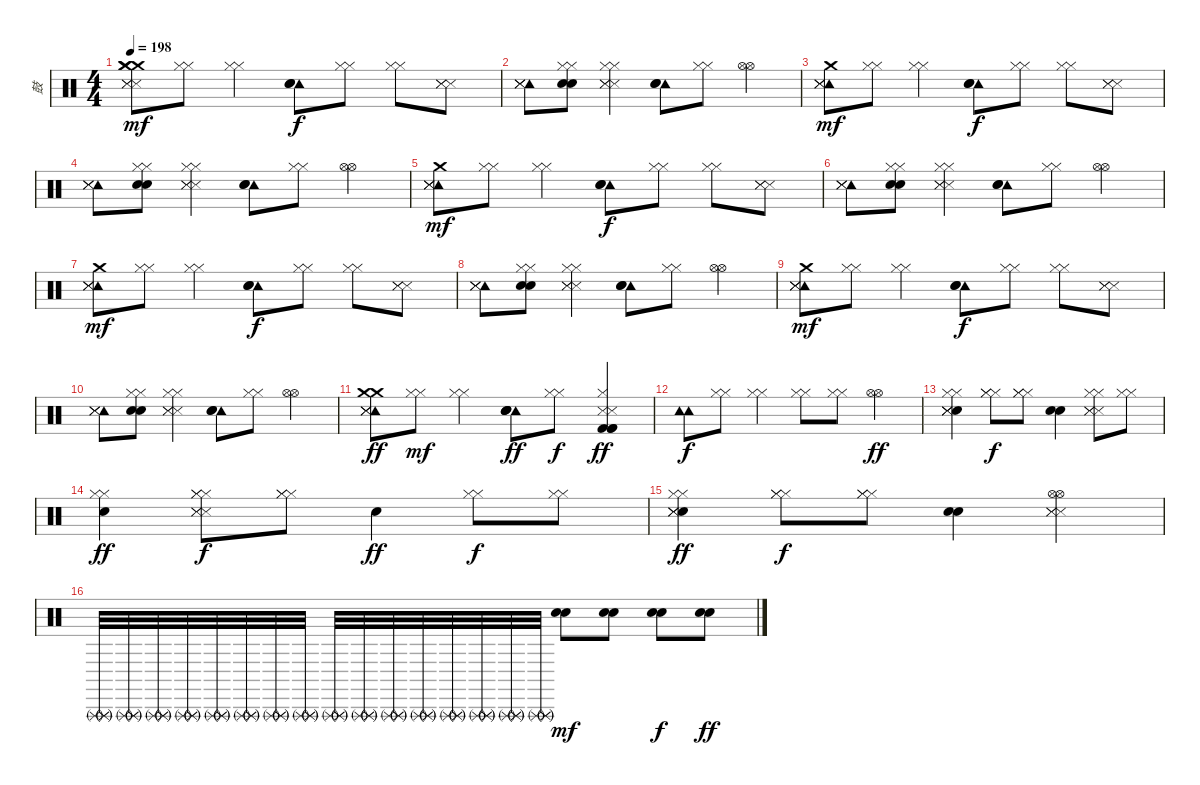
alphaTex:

\track ("鼓" "鼓") {instrument percussion}
\staff {score}
\articulation defaults
\ts (4 4)
\tempo 198
\clef neutral
\ks c
("Crash medium (hit)" "Crash medium (hit)" "Metronome (hit)" "Metronome (hit)" "Metronome (hit)" "Crash medium (hit)").8{dy mf} ("Hi-Hat (closed)" "Hi-Hat (closed)").8 ("Hi-Hat (closed)" "Hi-Hat (closed)").4 ("Tambourine (hit)" "Metronome (bell)" "Metronome (bell)").8{dy f} ("Hi-Hat (closed)" "Hi-Hat (closed)").8 ("Hi-Hat (closed)" "Hi-Hat (closed)").8 ("Metronome (hit)" "Metronome (hit)" "Metronome (hit)").8 |
("Tambourine (hit)" "Metronome (hit)" "Metronome (hit)" "Metronome (hit)").8 ("Hi-Hat (closed)" "Hi-Hat (closed)" "Metronome (bell)" "Metronome (bell)").8 ("Hi-Hat (closed)" "Hi-Hat (closed)" "Metronome (hit)" "Metronome (hit)" "Metronome (hit)").4 ("Tambourine (hit)" "Metronome (bell)" "Metronome (bell)").8 ("Hi-Hat (closed)" "Hi-Hat (closed)").8 ("Hi-Hat (open)" "Hi-Hat (open)").4 |
("Tambourine (hit)" "Crash medium (hit)" "Metronome (hit)" "Metronome (hit)" "Metronome (hit)").8{dy mf} ("Hi-Hat (closed)" "Hi-Hat (closed)").8 ("Hi-Hat (closed)" "Hi-Hat (closed)").4 ("Tambourine (hit)" "Metronome (bell)" "Metronome (bell)").8{dy f} ("Hi-Hat (closed)" "Hi-Hat (closed)").8 ("Hi-Hat (closed)" "Hi-Hat (closed)").8 ("Metronome (hit)" "Metronome (hit)" "Metronome (hit)").8 |
("Tambourine (hit)" "Metronome (hit)" "Metronome (hit)" "Metronome (hit)").8 ("Hi-Hat (closed)" "Hi-Hat (closed)" "Metronome (bell)" "Metronome (bell)").8 ("Hi-Hat (closed)" "Hi-Hat (closed)" "Metronome (hit)" "Metronome (hit)" "Metronome (hit)").4 ("Tambourine (hit)" "Metronome (bell)" "Metronome (bell)").8 ("Hi-Hat (closed)" "Hi-Hat (closed)").8 ("Hi-Hat (open)" "Hi-Hat (open)").4 |
("Tambourine (hit)" "Crash medium (hit)" "Metronome (hit)" "Metronome (hit)" "Metronome (hit)").8{dy mf} ("Hi-Hat (closed)" "Hi-Hat (closed)").8 ("Hi-Hat (closed)" "Hi-Hat (closed)").4 ("Tambourine (hit)" "Metronome (bell)" "Metronome (bell)").8{dy f} ("Hi-Hat (closed)" "Hi-Hat (closed)").8 ("Hi-Hat (closed)" "Hi-Hat (closed)").8 ("Metronome (hit)" "Metronome (hit)" "Metronome (hit)").8 |
("Tambourine (hit)" "Metronome (hit)" "Metronome (hit)" "Metronome (hit)").8 ("Hi-Hat (closed)" "Hi-Hat (closed)" "Metronome (bell)" "Metronome (bell)").8 ("Hi-Hat (closed)" "Hi-Hat (closed)" "Metronome (hit)" "Metronome (hit)" "Metronome (hit)").4 ("Tambourine (hit)" "Metronome (bell)" "Metronome (bell)").8 ("Hi-Hat (closed)" "Hi-Hat (closed)").8 ("Hi-Hat (open)" "Hi-Hat (open)").4 |
("Tambourine (hit)" "Crash medium (hit)" "Metronome (hit)" "Metronome (hit)" "Metronome (hit)").8{dy mf} ("Hi-Hat (closed)" "Hi-Hat (closed)").8 ("Hi-Hat (closed)" "Hi-Hat (closed)").4 ("Tambourine (hit)" "Metronome (bell)" "Metronome (bell)").8{dy f} ("Hi-Hat (closed)" "Hi-Hat (closed)").8 ("Hi-Hat (closed)" "Hi-Hat (closed)").8 ("Metronome (hit)" "Metronome (hit)" "Metronome (hit)").8 |
("Tambourine (hit)" "Metronome (hit)" "Metronome (hit)" "Metronome (hit)").8 ("Hi-Hat (closed)" "Hi-Hat (closed)" "Metronome (bell)" "Metronome (bell)").8 ("Hi-Hat (closed)" "Hi-Hat (closed)" "Metronome (hit)" "Metronome (hit)" "Metronome (hit)").4 ("Tambourine (hit)" "Metronome (bell)" "Metronome (bell)").8 ("Hi-Hat (closed)" "Hi-Hat (closed)").8 ("Hi-Hat (open)" "Hi-Hat (open)").4 |
("Tambourine (hit)" "Crash medium (hit)" "Metronome (hit)" "Metronome (hit)" "Metronome (hit)").8{dy mf} ("Hi-Hat (closed)" "Hi-Hat (closed)").8 ("Hi-Hat (closed)" "Hi-Hat (closed)").4 ("Tambourine (hit)" "Metronome (bell)" "Metronome (bell)").8{dy f} ("Hi-Hat (closed)" "Hi-Hat (closed)").8 ("Hi-Hat (closed)" "Hi-Hat (closed)").8 ("Metronome (hit)" "Metronome (hit)" "Metronome (hit)").8 |
("Tambourine (hit)" "Metronome (hit)" "Metronome (hit)" "Metronome (hit)").8 ("Hi-Hat (closed)" "Hi-Hat (closed)" "Metronome (bell)" "Metronome (bell)").8 ("Hi-Hat (closed)" "Hi-Hat (closed)" "Metronome (hit)" "Metronome (hit)" "Metronome (hit)").4 ("Tambourine (hit)" "Metronome (bell)" "Metronome (bell)").8 ("Hi-Hat (closed)" "Hi-Hat (closed)").8 ("Hi-Hat (open)" "Hi-Hat (open)").4 |
("Tambourine (hit)" "Crash medium (hit)" "Metronome (hit)" "Metronome (hit)" "Metronome (hit)" "Crash medium (hit)").8{dy ff} ("Hi-Hat (closed)" "Hi-Hat (closed)").8{dy mf} ("Hi-Hat (closed)" "Hi-Hat (closed)").4 ("Tambourine (hit)" "Metronome (bell)" "Metronome (bell)" "Metronome (bell)").8{dy ff} ("Hi-Hat (closed)" "Hi-Hat (closed)").8{dy f} ("Hi-Hat (closed)" "Metronome (hit)" "Kick (hit) 2" "Kick (hit) 2" "Metronome (hit)" "Kick (hit) 2").4{dy ff} |
("Tambourine (hit)" "Tambourine (hit)").8{dy f} ("Hi-Hat (closed)" "Hi-Hat (closed)").8 ("Hi-Hat (closed)" "Hi-Hat (closed)").4 ("Hi-Hat (closed)" "Hi-Hat (closed)").8 ("Hi-Hat (closed)" "Hi-Hat (closed)").8 ("Hi-Hat (open)" "Hi-Hat (open)").4{dy ff} |
("Hi-Hat (closed)" "Hi-Hat (closed)" "Hand Clap (hit)" "Metronome (hit)" "Metronome (hit)" "Metronome (hit)").4 ("Hi-Hat (closed)" "Hi-Hat (closed)" "Hi-Hat (closed)").8{dy f} ("Hi-Hat (closed)" "Hi-Hat (closed)" "Hi-Hat (closed)").8 ("Hand Clap (hit)" "Hand Clap (hit)").4 ("Hi-Hat (closed)" "Hi-Hat (closed)" "Metronome (hit)" "Metronome (hit)" "Metronome (hit)").8 ("Hi-Hat (closed)" "Hi-Hat (closed)").8 |
("Hi-Hat (closed)" "Hi-Hat (closed)" "Hand Clap (hit)").4{dy ff} ("Hi-Hat (closed)" "Hi-Hat (closed)" "Hi-Hat (closed)" "Metronome (hit)" "Metronome (hit)" "Metronome (hit)").8{dy f} ("Hi-Hat (closed)" "Hi-Hat (closed)" "Hi-Hat (closed)").8 "Hand Clap (hit)".4{dy ff} ("Hi-Hat (closed)" "Hi-Hat (closed)").8{dy f} ("Hi-Hat (closed)" "Hi-Hat (closed)").8 |
("Hi-Hat (closed)" "Hi-Hat (closed)" "Hand Clap (hit)" "Metronome (hit)" "Metronome (hit)" "Metronome (hit)").4{dy ff} ("Hi-Hat (closed)" "Hi-Hat (closed)" "Hi-Hat (closed)").8{dy f} ("Hi-Hat (closed)" "Hi-Hat (closed)" "Hi-Hat (closed)").8 ("Hand Clap (hit)" "Hand Clap (hit)").4 ("Hi-Hat (open)" "Hi-Hat (open)" "Metronome (hit)" "Metronome (hit)" "Metronome (hit)").4 |
("Triangle (rnute)" "Triangle (rnute)" "Triangle (rnute)").32 ("Triangle (rnute)" "Triangle (rnute)" "Triangle (rnute)").32 ("Triangle (rnute)" "Triangle (rnute)" "Triangle (rnute)").32 ("Triangle (rnute)" "Triangle (rnute)" "Triangle (rnute)").32 ("Triangle (rnute)" "Triangle (rnute)" "Triangle (rnute)").32 ("Triangle (rnute)" "Triangle (rnute)" "Triangle (rnute)").32 ("Triangle (rnute)" "Triangle (rnute)" "Triangle (rnute)").32 ("Triangle (rnute)" "Triangle (rnute)" "Triangle (rnute)").32 ("Triangle (rnute)" "Triangle (rnute)" "Triangle (rnute)").32 ("Triangle (rnute)" "Triangle (rnute)" "Triangle (rnute)").32 ("Triangle (rnute)" "Triangle (rnute)" "Triangle (rnute)").32 ("Triangle (rnute)" "Triangle (rnute)" "Triangle (rnute)").32 ("Triangle (rnute)" "Triangle (rnute)" "Triangle (rnute)").32 ("Triangle (rnute)" "Triangle (rnute)" "Triangle (rnute)").32 ("Triangle (rnute)" "Triangle (rnute)" "Triangle (rnute)").32 ("Triangle (rnute)" "Triangle (rnute)" "Triangle (rnute)").32 ("Metronome (bell)" "Metronome (bell)").8{dy mf} ("Metronome (bell)" "Metronome (bell)").8 ("Metronome (bell)" "Metronome (bell)").8{dy f} ("Metronome (bell)" "Metronome (bell)").8{dy ff}
